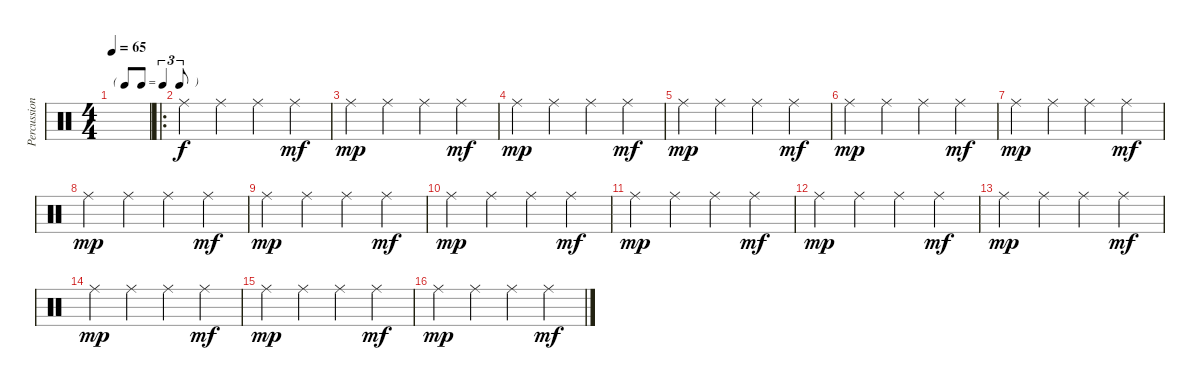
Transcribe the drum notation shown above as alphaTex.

\track ("Percussion" "Percussion") {instrument percussion}
\staff {score}
\articulation defaults
\ts (4 4)
\tf triplet8th
\tempo 65
\clef neutral
\ks c
|
\ro "Ride (middle)".4 "Ride (middle)".4 "Ride (middle)".4 "Ride (middle)".4{dy mf}
|
"Ride (middle)".4{dy mp} "Ride (middle)".4 "Ride (middle)".4 "Ride (middle)".4{dy mf} |
"Ride (middle)".4{dy mp} "Ride (middle)".4 "Ride (middle)".4 "Ride (middle)".4{dy mf} |
"Ride (middle)".4{dy mp} "Ride (middle)".4 "Ride (middle)".4 "Ride (middle)".4{dy mf} |
"Ride (middle)".4{dy mp} "Ride (middle)".4 "Ride (middle)".4 "Ride (middle)".4{dy mf} |
"Ride (middle)".4{dy mp} "Ride (middle)".4 "Ride (middle)".4 "Ride (middle)".4{dy mf} |
"Ride (middle)".4{dy mp} "Ride (middle)".4 "Ride (middle)".4 "Ride (middle)".4{dy mf} |
"Ride (middle)".4{dy mp} "Ride (middle)".4 "Ride (middle)".4 "Ride (middle)".4{dy mf} |
"Ride (middle)".4{dy mp} "Ride (middle)".4 "Ride (middle)".4 "Ride (middle)".4{dy mf} |
"Ride (middle)".4{dy mp} "Ride (middle)".4 "Ride (middle)".4 "Ride (middle)".4{dy mf} |
"Ride (middle)".4{dy mp} "Ride (middle)".4 "Ride (middle)".4 "Ride (middle)".4{dy mf} |
"Ride (middle)".4{dy mp} "Ride (middle)".4 "Ride (middle)".4 "Ride (middle)".4{dy mf} |
"Ride (middle)".4{dy mp} "Ride (middle)".4 "Ride (middle)".4 "Ride (middle)".4{dy mf} |
"Ride (middle)".4{dy mp} "Ride (middle)".4 "Ride (middle)".4 "Ride (middle)".4{dy mf} |
"Ride (middle)".4{dy mp} "Ride (middle)".4 "Ride (middle)".4 "Ride (middle)".4{dy mf}
